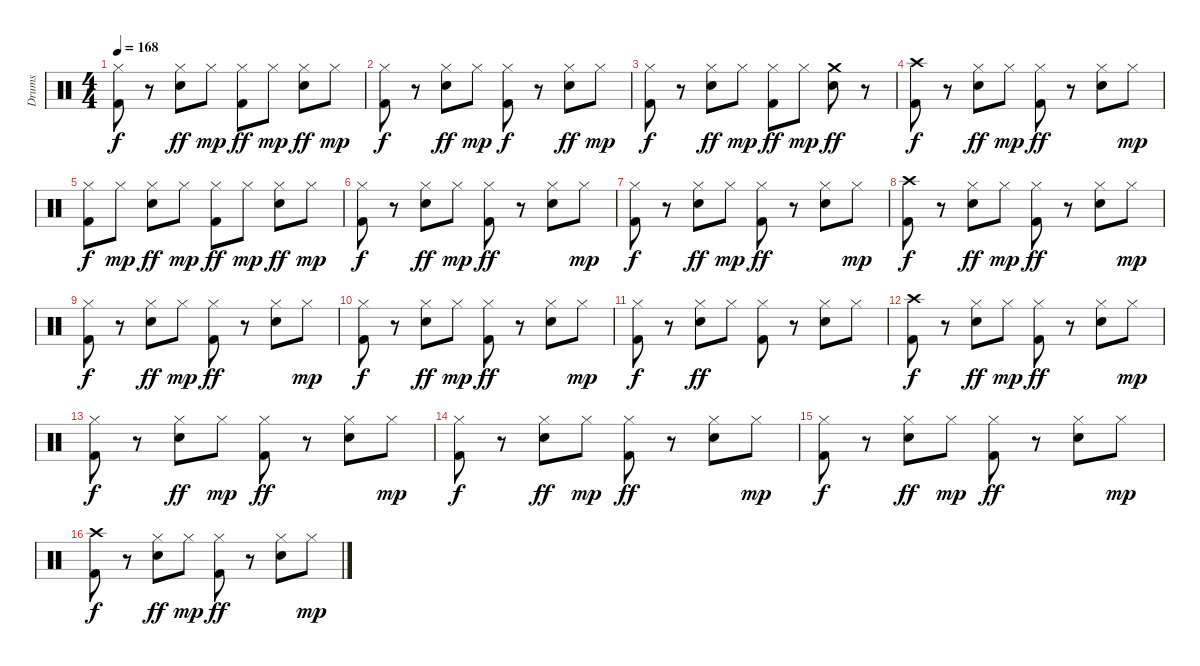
\track ("Drums" "Drums") {instrument percussion}
\staff {score}
\articulation defaults
\ts (4 4)
\tempo 168
\clef neutral
\ks c
("Hi-Hat (closed)" "Kick (hit) 2").8{dy f} r.8 ("Hi-Hat (closed)" "Electric Snare (hit)").8{dy ff} "Hi-Hat (closed)".8{dy mp} ("Hi-Hat (closed)" "Kick (hit) 2").8{dy ff} "Hi-Hat (closed)".8{dy mp} ("Hi-Hat (closed)" "Electric Snare (hit)").8{dy ff} "Hi-Hat (closed)".8{dy mp} |
("Hi-Hat (closed)" "Kick (hit) 2").8{dy f} r.8 ("Hi-Hat (closed)" "Electric Snare (hit)").8{dy ff} "Hi-Hat (closed)".8{dy mp} ("Hi-Hat (closed)" "Kick (hit) 2").8{dy f} r.8 ("Hi-Hat (closed)" "Electric Snare (hit)").8{dy ff} "Hi-Hat (closed)".8{dy mp} |
("Hi-Hat (closed)" "Kick (hit) 2").8{dy f} r.8 ("Hi-Hat (closed)" "Electric Snare (hit)").8{dy ff} "Hi-Hat (closed)".8{dy mp} ("Hi-Hat (closed)" "Kick (hit) 2").8{dy ff} "Hi-Hat (closed)".8{dy mp} ("Crash medium (hit)" "Electric Snare (hit)").8{dy ff} r.8 |
("Crash high (hit)" "Kick (hit) 2").8{dy f} r.8 ("Hi-Hat (closed)" "Electric Snare (hit)").8{dy ff} "Hi-Hat (closed)".8{dy mp} ("Hi-Hat (closed)" "Kick (hit) 2").8{dy ff} r.8 ("Hi-Hat (closed)" "Electric Snare (hit)").8 "Hi-Hat (closed)".8{dy mp} |
("Hi-Hat (closed)" "Kick (hit) 2").8{dy f} "Hi-Hat (closed)".8{dy mp} ("Hi-Hat (closed)" "Electric Snare (hit)").8{dy ff} "Hi-Hat (closed)".8{dy mp} ("Hi-Hat (closed)" "Kick (hit) 2").8{dy ff} "Hi-Hat (closed)".8{dy mp} ("Hi-Hat (closed)" "Electric Snare (hit)").8{dy ff} "Hi-Hat (closed)".8{dy mp} |
("Hi-Hat (closed)" "Kick (hit) 2").8{dy f} r.8 ("Hi-Hat (closed)" "Electric Snare (hit)").8{dy ff} "Hi-Hat (closed)".8{dy mp} ("Hi-Hat (closed)" "Kick (hit) 2").8{dy ff} r.8 ("Hi-Hat (closed)" "Electric Snare (hit)").8 "Hi-Hat (closed)".8{dy mp} |
("Hi-Hat (closed)" "Kick (hit) 2").8{dy f} r.8 ("Hi-Hat (closed)" "Electric Snare (hit)").8{dy ff} "Hi-Hat (closed)".8{dy mp} ("Hi-Hat (closed)" "Kick (hit) 2").8{dy ff} r.8 ("Hi-Hat (closed)" "Electric Snare (hit)").8 "Hi-Hat (closed)".8{dy mp} |
("Crash high (hit)" "Kick (hit) 2").8{dy f} r.8 ("Hi-Hat (closed)" "Electric Snare (hit)").8{dy ff} "Hi-Hat (closed)".8{dy mp} ("Hi-Hat (closed)" "Kick (hit) 2").8{dy ff} r.8 ("Hi-Hat (closed)" "Electric Snare (hit)").8 "Hi-Hat (closed)".8{dy mp} |
("Hi-Hat (closed)" "Kick (hit) 2").8{dy f} r.8 ("Hi-Hat (closed)" "Electric Snare (hit)").8{dy ff} "Hi-Hat (closed)".8{dy mp} ("Hi-Hat (closed)" "Kick (hit) 2").8{dy ff} r.8 ("Hi-Hat (closed)" "Electric Snare (hit)").8 "Hi-Hat (closed)".8{dy mp} |
("Hi-Hat (closed)" "Kick (hit) 2").8{dy f} r.8 ("Hi-Hat (closed)" "Electric Snare (hit)").8{dy ff} "Hi-Hat (closed)".8{dy mp} ("Hi-Hat (closed)" "Kick (hit) 2").8{dy ff} r.8 ("Hi-Hat (closed)" "Electric Snare (hit)").8 "Hi-Hat (closed)".8{dy mp} |
("Hi-Hat (closed)" "Kick (hit) 2").8{dy f} r.8 ("Hi-Hat (closed)" "Electric Snare (hit)").8{dy ff} "Hi-Hat (closed)".8 ("Hi-Hat (closed)" "Kick (hit) 2").8 r.8 ("Hi-Hat (closed)" "Electric Snare (hit)").8 "Hi-Hat (closed)".8 |
("Crash high (hit)" "Kick (hit) 2").8{dy f} r.8 ("Hi-Hat (closed)" "Electric Snare (hit)").8{dy ff} "Hi-Hat (closed)".8{dy mp} ("Hi-Hat (closed)" "Kick (hit) 2").8{dy ff} r.8 ("Hi-Hat (closed)" "Electric Snare (hit)").8 "Hi-Hat (closed)".8{dy mp} |
("Hi-Hat (closed)" "Kick (hit) 2").8{dy f} r.8 ("Hi-Hat (closed)" "Electric Snare (hit)").8{dy ff} "Hi-Hat (closed)".8{dy mp} ("Hi-Hat (closed)" "Kick (hit) 2").8{dy ff} r.8 ("Hi-Hat (closed)" "Electric Snare (hit)").8 "Hi-Hat (closed)".8{dy mp} |
("Hi-Hat (closed)" "Kick (hit) 2").8{dy f} r.8 ("Hi-Hat (closed)" "Electric Snare (hit)").8{dy ff} "Hi-Hat (closed)".8{dy mp} ("Hi-Hat (closed)" "Kick (hit) 2").8{dy ff} r.8 ("Hi-Hat (closed)" "Electric Snare (hit)").8 "Hi-Hat (closed)".8{dy mp} |
("Hi-Hat (closed)" "Kick (hit) 2").8{dy f} r.8 ("Hi-Hat (closed)" "Electric Snare (hit)").8{dy ff} "Hi-Hat (closed)".8{dy mp} ("Hi-Hat (closed)" "Kick (hit) 2").8{dy ff} r.8 ("Hi-Hat (closed)" "Electric Snare (hit)").8 "Hi-Hat (closed)".8{dy mp} |
("Crash high (hit)" "Kick (hit) 2").8{dy f} r.8 ("Hi-Hat (closed)" "Electric Snare (hit)").8{dy ff} "Hi-Hat (closed)".8{dy mp} ("Hi-Hat (closed)" "Kick (hit) 2").8{dy ff} r.8 ("Hi-Hat (closed)" "Electric Snare (hit)").8 "Hi-Hat (closed)".8{dy mp}
